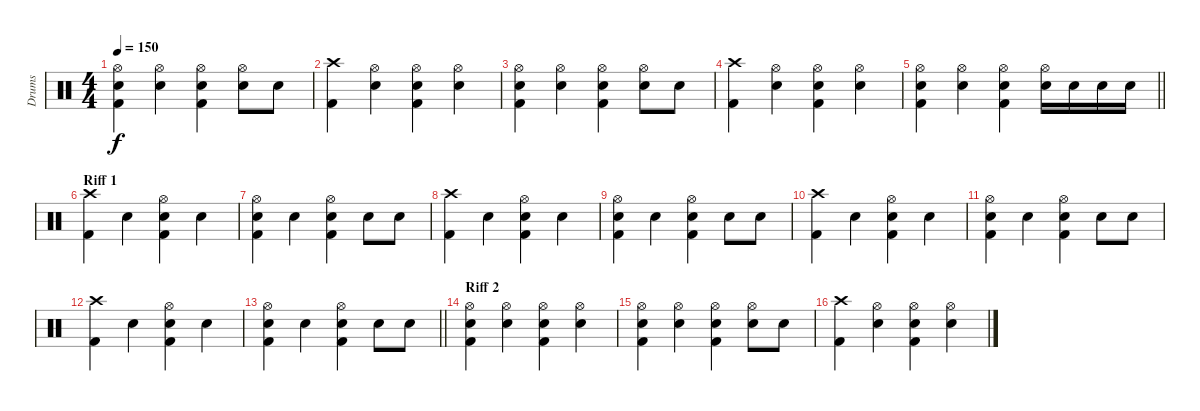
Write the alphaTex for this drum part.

\track ("Drums" "Drums") {instrument percussion}
\staff
\articulation defaults
\ts (4 4)
\tempo 150
\clef neutral
\ks c
("Hi-Hat (open)" "Snare (hit) 2" "Kick (hit) 2").4{dy f} ("Hi-Hat (open)" "Snare (hit) 2").4 ("Hi-Hat (open)" "Snare (hit) 2" "Kick (hit) 2").4 ("Hi-Hat (open)" "Snare (hit) 2").8 "Snare (hit) 2".8 |
("Crash high (hit)" "Kick (hit) 2").4 ("Hi-Hat (open)" "Snare (hit) 2").4 ("Hi-Hat (open)" "Snare (hit) 2" "Kick (hit) 2").4 ("Hi-Hat (open)" "Snare (hit) 2").4 |
("Hi-Hat (open)" "Snare (hit) 2" "Kick (hit) 2").4 ("Hi-Hat (open)" "Snare (hit) 2").4 ("Hi-Hat (open)" "Snare (hit) 2" "Kick (hit) 2").4 ("Hi-Hat (open)" "Snare (hit) 2").8 "Snare (hit) 2".8 |
("Crash high (hit)" "Kick (hit) 2").4 ("Hi-Hat (open)" "Snare (hit) 2").4 ("Hi-Hat (open)" "Snare (hit) 2" "Kick (hit) 2").4 ("Hi-Hat (open)" "Snare (hit) 2").4 |
\barLineRight lightlight
("Hi-Hat (open)" "Snare (hit) 2" "Kick (hit) 2").4 ("Hi-Hat (open)" "Snare (hit) 2").4 ("Hi-Hat (open)" "Snare (hit) 2" "Kick (hit) 2").4 ("Hi-Hat (open)" "Snare (hit) 2").16 "Snare (hit) 2".16 "Snare (hit) 2".16 "Snare (hit) 2".16 |
\section ("" "Riff 1")
("Crash high (hit)" "Kick (hit) 2").4 "Snare (hit) 2".4 ("Hi-Hat (open)" "Snare (hit) 2" "Kick (hit) 2").4 "Snare (hit) 2".4 |
("Hi-Hat (open)" "Snare (hit) 2" "Kick (hit) 2").4 "Snare (hit) 2".4 ("Hi-Hat (open)" "Snare (hit) 2" "Kick (hit) 2").4 "Snare (hit) 2".8 "Snare (hit) 2".8 |
("Crash high (hit)" "Kick (hit) 2").4 "Snare (hit) 2".4 ("Hi-Hat (open)" "Snare (hit) 2" "Kick (hit) 2").4 "Snare (hit) 2".4 |
("Hi-Hat (open)" "Snare (hit) 2" "Kick (hit) 2").4 "Snare (hit) 2".4 ("Hi-Hat (open)" "Snare (hit) 2" "Kick (hit) 2").4 "Snare (hit) 2".8 "Snare (hit) 2".8 |
("Crash high (hit)" "Kick (hit) 2").4 "Snare (hit) 2".4 ("Hi-Hat (open)" "Snare (hit) 2" "Kick (hit) 2").4 "Snare (hit) 2".4 |
("Hi-Hat (open)" "Snare (hit) 2" "Kick (hit) 2").4 "Snare (hit) 2".4 ("Hi-Hat (open)" "Snare (hit) 2" "Kick (hit) 2").4 "Snare (hit) 2".8 "Snare (hit) 2".8 |
("Crash high (hit)" "Kick (hit) 2").4 "Snare (hit) 2".4 ("Hi-Hat (open)" "Snare (hit) 2" "Kick (hit) 2").4 "Snare (hit) 2".4 |
\barLineRight lightlight
("Hi-Hat (open)" "Snare (hit) 2" "Kick (hit) 2").4 "Snare (hit) 2".4 ("Hi-Hat (open)" "Snare (hit) 2" "Kick (hit) 2").4 "Snare (hit) 2".8 "Snare (hit) 2".8 |
\section ("" "Riff 2")
("Hi-Hat (open)" "Snare (hit) 2" "Kick (hit) 2").4 ("Hi-Hat (open)" "Snare (hit) 2").4 ("Hi-Hat (open)" "Snare (hit) 2" "Kick (hit) 2").4 ("Hi-Hat (open)" "Snare (hit) 2").4 |
("Hi-Hat (open)" "Snare (hit) 2" "Kick (hit) 2").4 ("Hi-Hat (open)" "Snare (hit) 2").4 ("Hi-Hat (open)" "Snare (hit) 2" "Kick (hit) 2").4 ("Hi-Hat (open)" "Snare (hit) 2").8 "Snare (hit) 2".8 |
("Crash high (hit)" "Kick (hit) 2").4 ("Hi-Hat (open)" "Snare (hit) 2").4 ("Hi-Hat (open)" "Snare (hit) 2" "Kick (hit) 2").4 ("Hi-Hat (open)" "Snare (hit) 2").4
